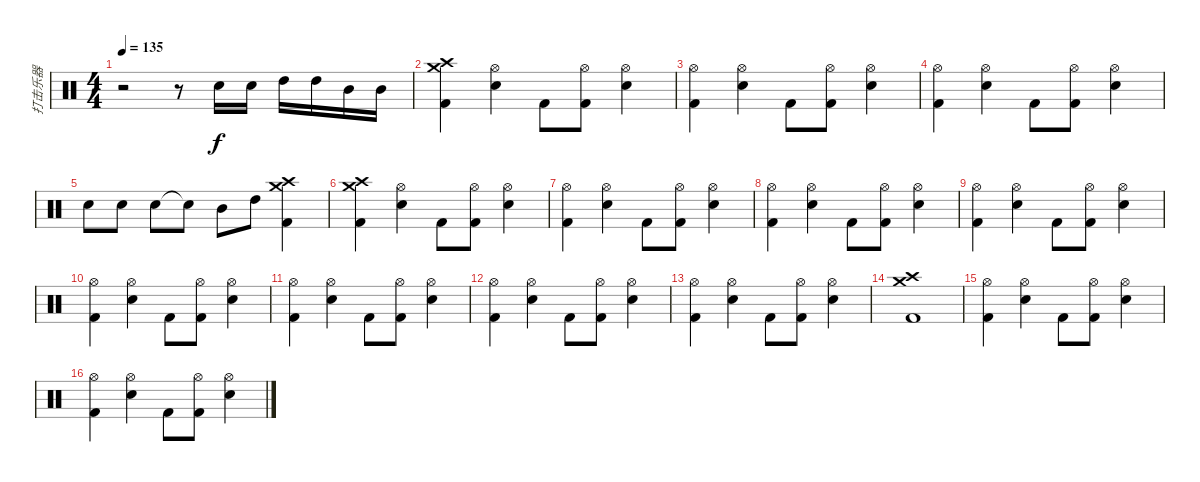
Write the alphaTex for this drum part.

\track ("打击乐器" "打击乐器") {instrument percussion}
\staff {score}
\articulation defaults
\ts (4 4)
\tempo 135
\clef neutral
\ks c
r.2{dy f} r.8 "Electric Snare (hit)".16 "Electric Snare (hit)".16 "High Tom (hit)".16 "High Tom (hit)".16 "Mid Tom (hit)".16 "Mid Tom (hit)".16 |
("Crash high (hit)" "Crash medium (hit)" "Kick (hit) 2").4 ("Hi-Hat (open)" "Electric Snare (hit)").4 "Kick (hit) 2".8 ("Hi-Hat (open)" "Kick (hit) 2").8 ("Hi-Hat (open)" "Electric Snare (hit)").4 |
("Hi-Hat (open)" "Kick (hit) 2").4 ("Hi-Hat (open)" "Electric Snare (hit)").4 "Kick (hit) 2".8 ("Hi-Hat (open)" "Kick (hit) 2").8 ("Hi-Hat (open)" "Electric Snare (hit)").4 |
("Hi-Hat (open)" "Kick (hit) 2").4 ("Hi-Hat (open)" "Electric Snare (hit)").4 "Kick (hit) 2".8 ("Hi-Hat (open)" "Kick (hit) 2").8 ("Hi-Hat (open)" "Electric Snare (hit)").4 |
"Electric Snare (hit)".8 "Electric Snare (hit)".8 "Electric Snare (hit)".8 "Snare (hit)"{t}.8 "Mid Tom (hit)".8 "High Tom (hit)".8 ("Crash high (hit)" "Crash medium (hit)" "Kick (hit) 2").4 |
("Crash high (hit)" "Crash medium (hit)" "Kick (hit) 2").4 ("Hi-Hat (open)" "Electric Snare (hit)").4 "Kick (hit) 2".8 ("Hi-Hat (open)" "Kick (hit) 2").8 ("Hi-Hat (open)" "Electric Snare (hit)").4 |
("Hi-Hat (open)" "Kick (hit) 2").4 ("Hi-Hat (open)" "Electric Snare (hit)").4 "Kick (hit) 2".8 ("Hi-Hat (open)" "Kick (hit) 2").8 ("Hi-Hat (open)" "Electric Snare (hit)").4 |
("Hi-Hat (open)" "Kick (hit) 2").4 ("Hi-Hat (open)" "Electric Snare (hit)").4 "Kick (hit) 2".8 ("Hi-Hat (open)" "Kick (hit) 2").8 ("Hi-Hat (open)" "Electric Snare (hit)").4 |
("Hi-Hat (open)" "Kick (hit) 2").4 ("Hi-Hat (open)" "Electric Snare (hit)").4 "Kick (hit) 2".8 ("Hi-Hat (open)" "Kick (hit) 2").8 ("Hi-Hat (open)" "Electric Snare (hit)").4 |
("Hi-Hat (open)" "Kick (hit) 2").4 ("Hi-Hat (open)" "Electric Snare (hit)").4 "Kick (hit) 2".8 ("Hi-Hat (open)" "Kick (hit) 2").8 ("Hi-Hat (open)" "Electric Snare (hit)").4 |
("Hi-Hat (open)" "Kick (hit) 2").4 ("Hi-Hat (open)" "Electric Snare (hit)").4 "Kick (hit) 2".8 ("Hi-Hat (open)" "Kick (hit) 2").8 ("Hi-Hat (open)" "Electric Snare (hit)").4 |
("Hi-Hat (open)" "Kick (hit) 2").4 ("Hi-Hat (open)" "Electric Snare (hit)").4 "Kick (hit) 2".8 ("Hi-Hat (open)" "Kick (hit) 2").8 ("Hi-Hat (open)" "Electric Snare (hit)").4 |
("Hi-Hat (open)" "Kick (hit) 2").4 ("Hi-Hat (open)" "Electric Snare (hit)").4 "Kick (hit) 2".8 ("Hi-Hat (open)" "Kick (hit) 2").8 ("Hi-Hat (open)" "Electric Snare (hit)").4 |
("Crash high (hit)" "Crash medium (hit)" "Kick (hit) 2").1 |
("Hi-Hat (open)" "Kick (hit) 2").4 ("Hi-Hat (open)" "Electric Snare (hit)").4 "Kick (hit) 2".8 ("Hi-Hat (open)" "Kick (hit) 2").8 ("Hi-Hat (open)" "Electric Snare (hit)").4 |
("Hi-Hat (open)" "Kick (hit) 2").4 ("Hi-Hat (open)" "Electric Snare (hit)").4 "Kick (hit) 2".8 ("Hi-Hat (open)" "Kick (hit) 2").8 ("Hi-Hat (open)" "Electric Snare (hit)").4
